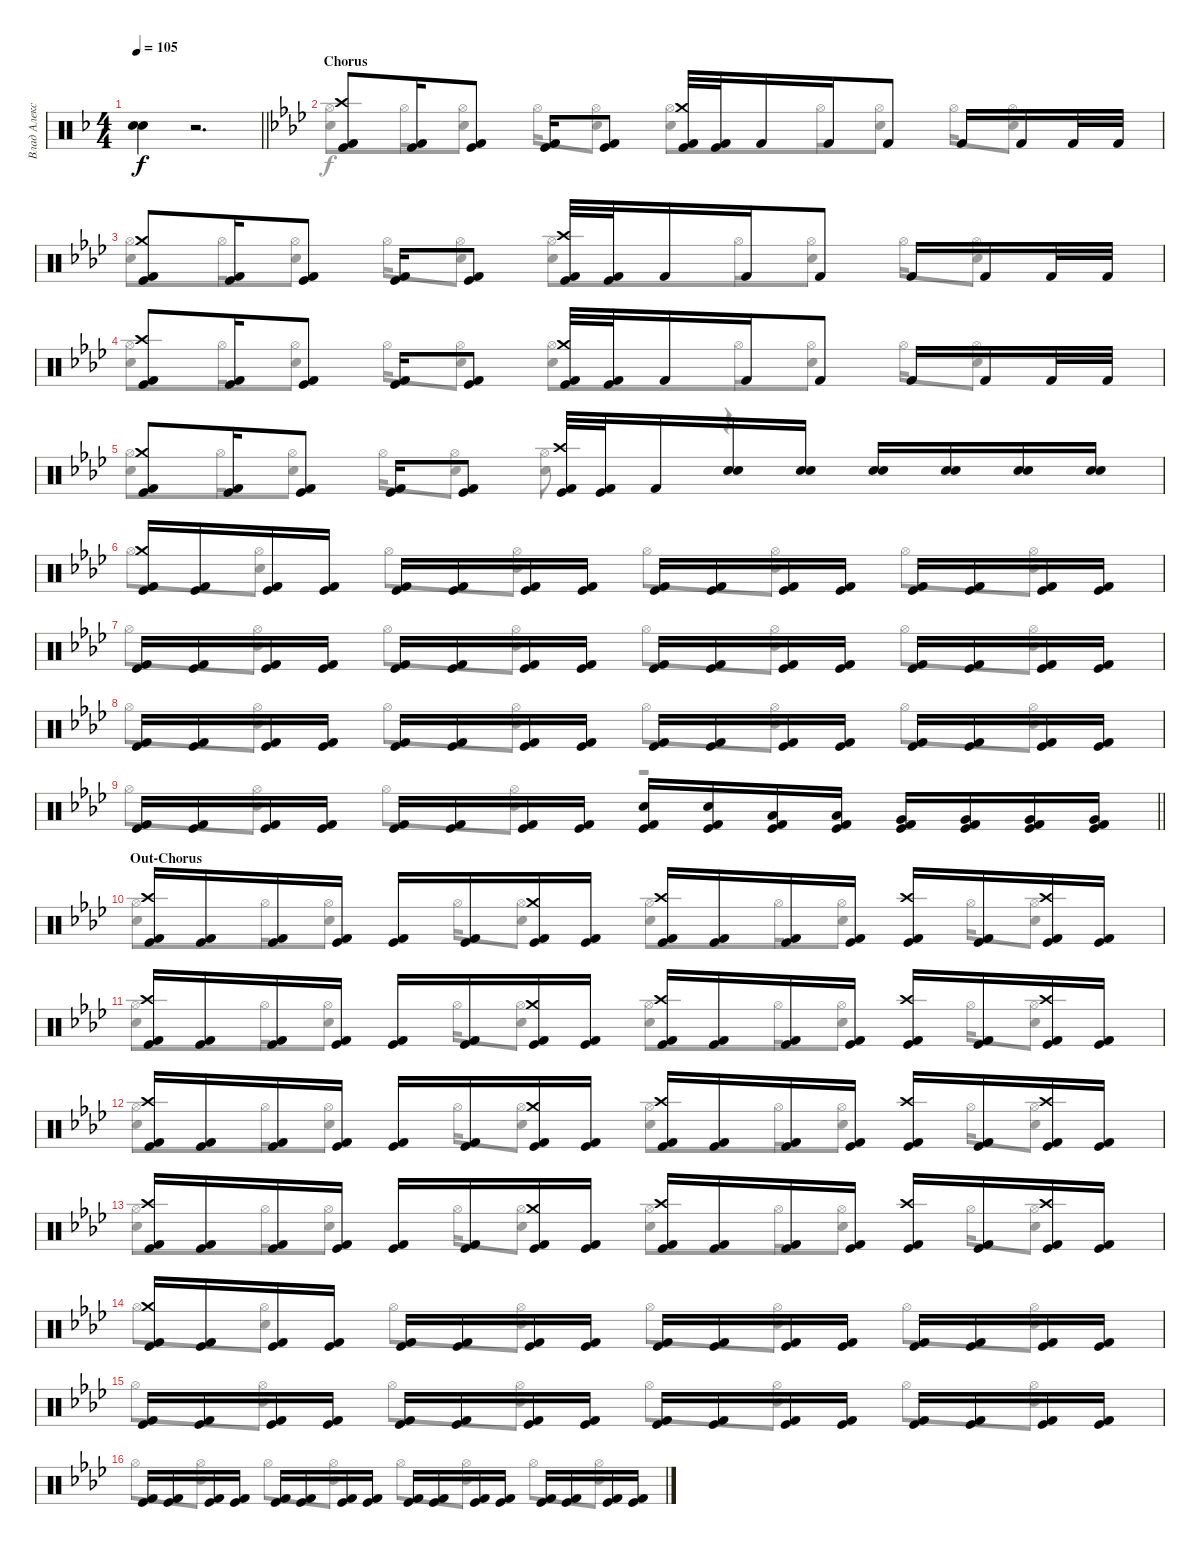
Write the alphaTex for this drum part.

\track ("Влад Алексеенко" "Влад Алекс") {instrument percussion}
\staff {score}
\articulation defaults
\voice
\ts (4 4)
\tempo 105
\clef neutral
\barLineRight lightlight
\ks f
("Snare (hit) 2" "Electric Snare (hit)").4{dy f} r.2{d} |
\section ("" "Chorus")
\ks ab
("Kick (hit) 2" "Kick (hit)" "Crash high (hit)").8 ("Kick (hit) 2" "Kick (hit)").16 ("Kick (hit) 2" "Kick (hit)").8 ("Kick (hit) 2" "Kick (hit)").16 ("Kick (hit) 2" "Kick (hit)").8 ("Kick (hit) 2" "Kick (hit)" "Crash medium (hit)").32 ("Kick (hit) 2" "Kick (hit)").32 "Kick (hit) 2".16 "Kick (hit) 2".16 "Kick (hit) 2".8 "Kick (hit) 2".16 "Kick (hit) 2".16 "Kick (hit) 2".32 "Kick (hit) 2".32 |
("Kick (hit) 2" "Kick (hit)" "Crash medium (hit)").8 ("Kick (hit) 2" "Kick (hit)").16 ("Kick (hit) 2" "Kick (hit)").8 ("Kick (hit) 2" "Kick (hit)").16 ("Kick (hit) 2" "Kick (hit)").8 ("Kick (hit) 2" "Kick (hit)" "Crash high (hit)").32 ("Kick (hit) 2" "Kick (hit)").32 "Kick (hit) 2".16 "Kick (hit) 2".16 "Kick (hit) 2".8 "Kick (hit) 2".16 "Kick (hit) 2".16 "Kick (hit) 2".32 "Kick (hit) 2".32 |
("Kick (hit) 2" "Kick (hit)" "Crash high (hit)").8 ("Kick (hit) 2" "Kick (hit)").16 ("Kick (hit) 2" "Kick (hit)").8 ("Kick (hit) 2" "Kick (hit)").16 ("Kick (hit) 2" "Kick (hit)").8 ("Kick (hit) 2" "Kick (hit)" "Crash medium (hit)").32 ("Kick (hit) 2" "Kick (hit)").32 "Kick (hit) 2".16 "Kick (hit) 2".16 "Kick (hit) 2".8 "Kick (hit) 2".16 "Kick (hit) 2".16 "Kick (hit) 2".32 "Kick (hit) 2".32 |
("Kick (hit) 2" "Kick (hit)" "Crash medium (hit)").8 ("Kick (hit) 2" "Kick (hit)").16 ("Kick (hit) 2" "Kick (hit)").8 ("Kick (hit) 2" "Kick (hit)").16 ("Kick (hit) 2" "Kick (hit)").8 ("Kick (hit) 2" "Kick (hit)" "Crash high (hit)").32 ("Kick (hit) 2" "Kick (hit)").32 "Kick (hit) 2".16 ("Snare (hit) 2" "Snare (hit) 2").16 ("Snare (hit) 2" "Snare (hit) 2").16 ("Snare (hit) 2" "Snare (hit) 2").16 ("Snare (hit) 2" "Snare (hit) 2").16 ("Snare (hit) 2" "Snare (hit) 2").16 ("Snare (hit) 2" "Snare (hit) 2").16 |
("Kick (hit) 2" "Kick (hit)" "Crash medium (hit)").16 ("Kick (hit) 2" "Kick (hit)").16 ("Kick (hit) 2" "Kick (hit)").16 ("Kick (hit) 2" "Kick (hit)").16 ("Kick (hit) 2" "Kick (hit)").16 ("Kick (hit) 2" "Kick (hit)").16 ("Kick (hit) 2" "Kick (hit)").16 ("Kick (hit) 2" "Kick (hit)").16 ("Kick (hit) 2" "Kick (hit)").16 ("Kick (hit) 2" "Kick (hit)").16 ("Kick (hit) 2" "Kick (hit)").16 ("Kick (hit) 2" "Kick (hit)").16 ("Kick (hit) 2" "Kick (hit)").16 ("Kick (hit) 2" "Kick (hit)").16 ("Kick (hit) 2" "Kick (hit)").16 ("Kick (hit) 2" "Kick (hit)").16 |
("Kick (hit) 2" "Kick (hit)").16 ("Kick (hit) 2" "Kick (hit)").16 ("Kick (hit) 2" "Kick (hit)").16 ("Kick (hit) 2" "Kick (hit)").16 ("Kick (hit) 2" "Kick (hit)").16 ("Kick (hit) 2" "Kick (hit)").16 ("Kick (hit) 2" "Kick (hit)").16 ("Kick (hit) 2" "Kick (hit)").16 ("Kick (hit) 2" "Kick (hit)").16 ("Kick (hit) 2" "Kick (hit)").16 ("Kick (hit) 2" "Kick (hit)").16 ("Kick (hit) 2" "Kick (hit)").16 ("Kick (hit) 2" "Kick (hit)").16 ("Kick (hit) 2" "Kick (hit)").16 ("Kick (hit) 2" "Kick (hit)").16 ("Kick (hit) 2" "Kick (hit)").16 |
("Kick (hit) 2" "Kick (hit)").16 ("Kick (hit) 2" "Kick (hit)").16 ("Kick (hit) 2" "Kick (hit)").16 ("Kick (hit) 2" "Kick (hit)").16 ("Kick (hit) 2" "Kick (hit)").16 ("Kick (hit) 2" "Kick (hit)").16 ("Kick (hit) 2" "Kick (hit)").16 ("Kick (hit) 2" "Kick (hit)").16 ("Kick (hit) 2" "Kick (hit)").16 ("Kick (hit) 2" "Kick (hit)").16 ("Kick (hit) 2" "Kick (hit)").16 ("Kick (hit) 2" "Kick (hit)").16 ("Kick (hit) 2" "Kick (hit)").16 ("Kick (hit) 2" "Kick (hit)").16 ("Kick (hit) 2" "Kick (hit)").16 ("Kick (hit) 2" "Kick (hit)").16 |
\barLineRight lightlight
("Kick (hit) 2" "Kick (hit)").16 ("Kick (hit) 2" "Kick (hit)").16 ("Kick (hit) 2" "Kick (hit)").16 ("Kick (hit) 2" "Kick (hit)").16 ("Kick (hit) 2" "Kick (hit)").16 ("Kick (hit) 2" "Kick (hit)").16 ("Kick (hit) 2" "Kick (hit)").16 ("Kick (hit) 2" "Kick (hit)").16 ("Kick (hit) 2" "Kick (hit)" "Snare (hit) 2").16 ("Kick (hit) 2" "Kick (hit)" "Snare (hit) 2").16 ("Kick (hit) 2" "Kick (hit)" "Low Tom (hit)").16 ("Kick (hit) 2" "Kick (hit)" "Low Tom (hit)").16 ("Kick (hit) 2" "Kick (hit)" "Very Low Tom (hit)").16 ("Kick (hit) 2" "Kick (hit)" "Very Low Tom (hit)").16 ("Kick (hit) 2" "Kick (hit)" "Very Low Tom (hit)").16 ("Kick (hit) 2" "Kick (hit)" "Very Low Tom (hit)").16 |
\section ("" "Out-Chorus")
("Kick (hit) 2" "Kick (hit)" "Crash high (hit)").16 ("Kick (hit) 2" "Kick (hit)").16 ("Kick (hit) 2" "Kick (hit)").16 ("Kick (hit) 2" "Kick (hit)").16 ("Kick (hit) 2" "Kick (hit)").16 ("Kick (hit) 2" "Kick (hit)").16 ("Kick (hit) 2" "Kick (hit)" "Crash medium (hit)").16 ("Kick (hit) 2" "Kick (hit)").16 ("Kick (hit) 2" "Kick (hit)" "Crash high (hit)").16 ("Kick (hit) 2" "Kick (hit)").16 ("Kick (hit) 2" "Kick (hit)").16 ("Kick (hit) 2" "Kick (hit)").16 ("Kick (hit) 2" "Kick (hit)" "Crash high (hit)").16 ("Kick (hit) 2" "Kick (hit)").16 ("Kick (hit) 2" "Kick (hit)" "Crash high (hit)").16 ("Kick (hit) 2" "Kick (hit)").16 |
("Kick (hit) 2" "Kick (hit)" "Crash high (hit)").16 ("Kick (hit) 2" "Kick (hit)").16 ("Kick (hit) 2" "Kick (hit)").16 ("Kick (hit) 2" "Kick (hit)").16 ("Kick (hit) 2" "Kick (hit)").16 ("Kick (hit) 2" "Kick (hit)").16 ("Kick (hit) 2" "Kick (hit)" "Crash medium (hit)").16 ("Kick (hit) 2" "Kick (hit)").16 ("Kick (hit) 2" "Kick (hit)" "Crash high (hit)").16 ("Kick (hit) 2" "Kick (hit)").16 ("Kick (hit) 2" "Kick (hit)").16 ("Kick (hit) 2" "Kick (hit)").16 ("Kick (hit) 2" "Kick (hit)" "Crash high (hit)").16 ("Kick (hit) 2" "Kick (hit)").16 ("Kick (hit) 2" "Kick (hit)" "Crash high (hit)").16 ("Kick (hit) 2" "Kick (hit)").16 |
("Kick (hit) 2" "Kick (hit)" "Crash high (hit)").16 ("Kick (hit) 2" "Kick (hit)").16 ("Kick (hit) 2" "Kick (hit)").16 ("Kick (hit) 2" "Kick (hit)").16 ("Kick (hit) 2" "Kick (hit)").16 ("Kick (hit) 2" "Kick (hit)").16 ("Kick (hit) 2" "Kick (hit)" "Crash medium (hit)").16 ("Kick (hit) 2" "Kick (hit)").16 ("Kick (hit) 2" "Kick (hit)" "Crash high (hit)").16 ("Kick (hit) 2" "Kick (hit)").16 ("Kick (hit) 2" "Kick (hit)").16 ("Kick (hit) 2" "Kick (hit)").16 ("Kick (hit) 2" "Kick (hit)" "Crash high (hit)").16 ("Kick (hit) 2" "Kick (hit)").16 ("Kick (hit) 2" "Kick (hit)" "Crash high (hit)").16 ("Kick (hit) 2" "Kick (hit)").16 |
("Kick (hit) 2" "Kick (hit)" "Crash high (hit)").16 ("Kick (hit) 2" "Kick (hit)").16 ("Kick (hit) 2" "Kick (hit)").16 ("Kick (hit) 2" "Kick (hit)").16 ("Kick (hit) 2" "Kick (hit)").16 ("Kick (hit) 2" "Kick (hit)").16 ("Kick (hit) 2" "Kick (hit)" "Crash medium (hit)").16 ("Kick (hit) 2" "Kick (hit)").16 ("Kick (hit) 2" "Kick (hit)" "Crash high (hit)").16 ("Kick (hit) 2" "Kick (hit)").16 ("Kick (hit) 2" "Kick (hit)").16 ("Kick (hit) 2" "Kick (hit)").16 ("Kick (hit) 2" "Kick (hit)" "Crash high (hit)").16 ("Kick (hit) 2" "Kick (hit)").16 ("Kick (hit) 2" "Kick (hit)" "Crash high (hit)").16 ("Kick (hit) 2" "Kick (hit)").16 |
("Kick (hit) 2" "Kick (hit)" "Crash medium (hit)").16 ("Kick (hit) 2" "Kick (hit)").16 ("Kick (hit) 2" "Kick (hit)").16 ("Kick (hit) 2" "Kick (hit)").16 ("Kick (hit) 2" "Kick (hit)").16 ("Kick (hit) 2" "Kick (hit)").16 ("Kick (hit) 2" "Kick (hit)").16 ("Kick (hit) 2" "Kick (hit)").16 ("Kick (hit) 2" "Kick (hit)").16 ("Kick (hit) 2" "Kick (hit)").16 ("Kick (hit) 2" "Kick (hit)").16 ("Kick (hit) 2" "Kick (hit)").16 ("Kick (hit) 2" "Kick (hit)").16 ("Kick (hit) 2" "Kick (hit)").16 ("Kick (hit) 2" "Kick (hit)").16 ("Kick (hit) 2" "Kick (hit)").16 |
("Kick (hit) 2" "Kick (hit)").16 ("Kick (hit) 2" "Kick (hit)").16 ("Kick (hit) 2" "Kick (hit)").16 ("Kick (hit) 2" "Kick (hit)").16 ("Kick (hit) 2" "Kick (hit)").16 ("Kick (hit) 2" "Kick (hit)").16 ("Kick (hit) 2" "Kick (hit)").16 ("Kick (hit) 2" "Kick (hit)").16 ("Kick (hit) 2" "Kick (hit)").16 ("Kick (hit) 2" "Kick (hit)").16 ("Kick (hit) 2" "Kick (hit)").16 ("Kick (hit) 2" "Kick (hit)").16 ("Kick (hit) 2" "Kick (hit)").16 ("Kick (hit) 2" "Kick (hit)").16 ("Kick (hit) 2" "Kick (hit)").16 ("Kick (hit) 2" "Kick (hit)").16 |
("Kick (hit) 2" "Kick (hit)").16 ("Kick (hit) 2" "Kick (hit)").16 ("Kick (hit) 2" "Kick (hit)").16 ("Kick (hit) 2" "Kick (hit)").16 ("Kick (hit) 2" "Kick (hit)").16 ("Kick (hit) 2" "Kick (hit)").16 ("Kick (hit) 2" "Kick (hit)").16 ("Kick (hit) 2" "Kick (hit)").16 ("Kick (hit) 2" "Kick (hit)").16 ("Kick (hit) 2" "Kick (hit)").16 ("Kick (hit) 2" "Kick (hit)").16 ("Kick (hit) 2" "Kick (hit)").16 ("Kick (hit) 2" "Kick (hit)").16 ("Kick (hit) 2" "Kick (hit)").16 ("Kick (hit) 2" "Kick (hit)").16 ("Kick (hit) 2" "Kick (hit)").16
\voice
\clef neutral
\ottava regular
\simile none
\barLineRight lightlight
\ks f
|
\ks ab
("Snare (hit) 2" "Hi-Hat (open)").8 "Hi-Hat (open)".16 ("Snare (hit) 2" "Hi-Hat (open)").8 "Hi-Hat (open)".16 ("Snare (hit) 2" "Hi-Hat (open)").8 ("Snare (hit) 2" "Hi-Hat (open)").8 "Hi-Hat (open)".16 ("Snare (hit) 2" "Hi-Hat (open)").8 "Hi-Hat (open)".16 ("Snare (hit) 2" "Hi-Hat (open)").8 |
("Snare (hit) 2" "Hi-Hat (open)").8 "Hi-Hat (open)".16 ("Snare (hit) 2" "Hi-Hat (open)").8 "Hi-Hat (open)".16 ("Snare (hit) 2" "Hi-Hat (open)").8 ("Snare (hit) 2" "Hi-Hat (open)").8 "Hi-Hat (open)".16 ("Snare (hit) 2" "Hi-Hat (open)").8 "Hi-Hat (open)".16 ("Snare (hit) 2" "Hi-Hat (open)").8 |
("Snare (hit) 2" "Hi-Hat (open)").8 "Hi-Hat (open)".16 ("Snare (hit) 2" "Hi-Hat (open)").8 "Hi-Hat (open)".16 ("Snare (hit) 2" "Hi-Hat (open)").8 ("Snare (hit) 2" "Hi-Hat (open)").8 "Hi-Hat (open)".16 ("Snare (hit) 2" "Hi-Hat (open)").8 "Hi-Hat (open)".16 ("Snare (hit) 2" "Hi-Hat (open)").8 |
("Snare (hit) 2" "Hi-Hat (open)").8 "Hi-Hat (open)".16 ("Snare (hit) 2" "Hi-Hat (open)").8 "Hi-Hat (open)".16 ("Snare (hit) 2" "Hi-Hat (open)").8 ("Snare (hit) 2" "Hi-Hat (open)").8 r.4{d} |
"Hi-Hat (open)".8 ("Hi-Hat (open)" "Snare (hit) 2").8 "Hi-Hat (open)".8 ("Hi-Hat (open)" "Snare (hit) 2").8 "Hi-Hat (open)".8 ("Hi-Hat (open)" "Snare (hit) 2").8 "Hi-Hat (open)".8 ("Hi-Hat (open)" "Snare (hit) 2").8 |
"Hi-Hat (open)".8 ("Hi-Hat (open)" "Snare (hit) 2").8 "Hi-Hat (open)".8 ("Hi-Hat (open)" "Snare (hit) 2").8 "Hi-Hat (open)".8 ("Hi-Hat (open)" "Snare (hit) 2").8 "Hi-Hat (open)".8 ("Hi-Hat (open)" "Snare (hit) 2").8 |
"Hi-Hat (open)".8 ("Hi-Hat (open)" "Snare (hit) 2").8 "Hi-Hat (open)".8 ("Hi-Hat (open)" "Snare (hit) 2").8 "Hi-Hat (open)".8 ("Hi-Hat (open)" "Snare (hit) 2").8 "Hi-Hat (open)".8 ("Hi-Hat (open)" "Snare (hit) 2").8 |
\barLineRight lightlight "Hi-Hat (open)".8
("Hi-Hat (open)" "Snare (hit) 2").8 "Hi-Hat (open)".8 ("Hi-Hat (open)" "Snare (hit) 2").8 r.2 |
("Snare (hit) 2" "Hi-Hat (open)").8 "Hi-Hat (open)".16 ("Snare (hit) 2" "Hi-Hat (open)").8 "Hi-Hat (open)".16 ("Snare (hit) 2" "Hi-Hat (open)").8 ("Snare (hit) 2" "Hi-Hat (open)").8 "Hi-Hat (open)".16 ("Snare (hit) 2" "Hi-Hat (open)").8 "Hi-Hat (open)".16 ("Snare (hit) 2" "Hi-Hat (open)").8 |
("Snare (hit) 2" "Hi-Hat (open)").8 "Hi-Hat (open)".16 ("Snare (hit) 2" "Hi-Hat (open)").8 "Hi-Hat (open)".16 ("Snare (hit) 2" "Hi-Hat (open)").8 ("Snare (hit) 2" "Hi-Hat (open)").8 "Hi-Hat (open)".16 ("Snare (hit) 2" "Hi-Hat (open)").8 "Hi-Hat (open)".16 ("Snare (hit) 2" "Hi-Hat (open)").8 |
("Snare (hit) 2" "Hi-Hat (open)").8 "Hi-Hat (open)".16 ("Snare (hit) 2" "Hi-Hat (open)").8 "Hi-Hat (open)".16 ("Snare (hit) 2" "Hi-Hat (open)").8 ("Snare (hit) 2" "Hi-Hat (open)").8 "Hi-Hat (open)".16 ("Snare (hit) 2" "Hi-Hat (open)").8 "Hi-Hat (open)".16 ("Snare (hit) 2" "Hi-Hat (open)").8 |
("Snare (hit) 2" "Hi-Hat (open)").8 "Hi-Hat (open)".16 ("Snare (hit) 2" "Hi-Hat (open)").8 "Hi-Hat (open)".16 ("Snare (hit) 2" "Hi-Hat (open)").8 ("Snare (hit) 2" "Hi-Hat (open)").8 "Hi-Hat (open)".16 ("Snare (hit) 2" "Hi-Hat (open)").8 "Hi-Hat (open)".16 ("Snare (hit) 2" "Hi-Hat (open)").8 |
"Hi-Hat (open)".8 ("Hi-Hat (open)" "Snare (hit) 2").8 "Hi-Hat (open)".8 ("Hi-Hat (open)" "Snare (hit) 2").8 "Hi-Hat (open)".8 ("Hi-Hat (open)" "Snare (hit) 2").8 "Hi-Hat (open)".8 ("Hi-Hat (open)" "Snare (hit) 2").8 |
"Hi-Hat (open)".8 ("Hi-Hat (open)" "Snare (hit) 2").8 "Hi-Hat (open)".8 ("Hi-Hat (open)" "Snare (hit) 2").8 "Hi-Hat (open)".8 ("Hi-Hat (open)" "Snare (hit) 2").8 "Hi-Hat (open)".8 ("Hi-Hat (open)" "Snare (hit) 2").8 |
"Hi-Hat (open)".8 ("Hi-Hat (open)" "Snare (hit) 2").8 "Hi-Hat (open)".8 ("Hi-Hat (open)" "Snare (hit) 2").8 "Hi-Hat (open)".8 ("Hi-Hat (open)" "Snare (hit) 2").8 "Hi-Hat (open)".8 ("Hi-Hat (open)" "Snare (hit) 2").8
